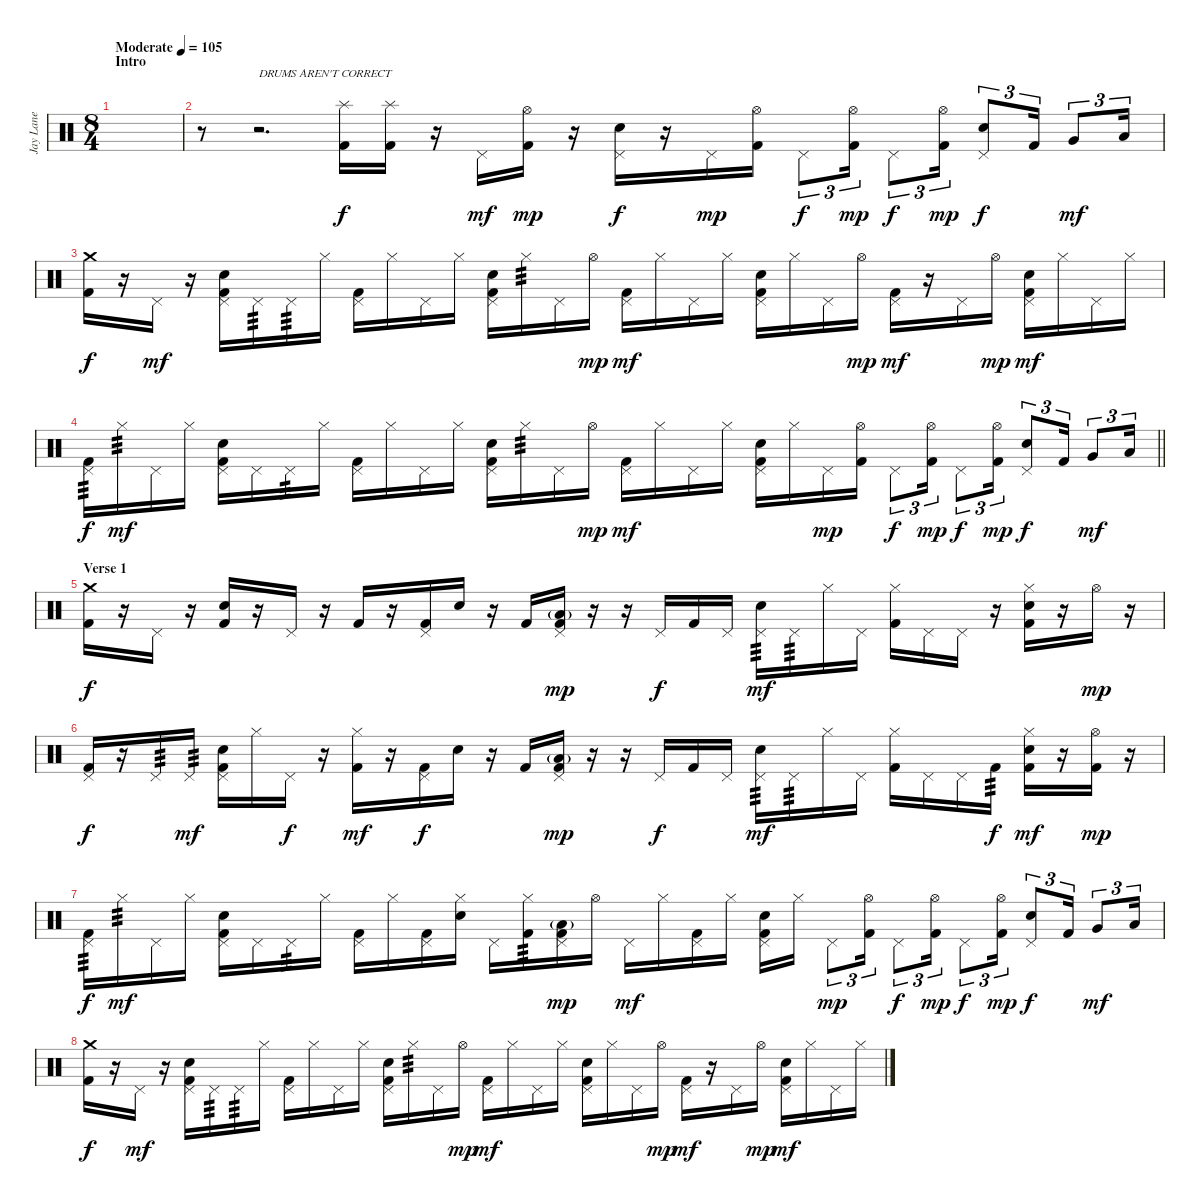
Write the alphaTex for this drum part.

\track ("Jay Lane" "Jay Lane") {instrument percussion}
\staff {score}
\articulation defaults
\ts (8 4)
\section ("" "Intro")
\tempo (105 "Moderate")
\clef neutral
\ks c
|
r.8 r.2{d txt "DRUMS AREN'T CORRECT"} ("Splash (hit)" "Kick (hit) 2").16 ("Splash (hit)" "Kick (hit) 2").16{dy f} r.16 "Pedal Hi-Hat (hit)".16{dy mf} ("Hi-Hat (open)" "Kick (hit) 2").16{dy mp} r.16 ("Pedal Hi-Hat (hit)" "Electric Snare (hit)").16{dy f} r.16 "Pedal Hi-Hat (hit)".16{dy mp} ("Hi-Hat (open)" "Kick (hit) 2").16 "Pedal Hi-Hat (hit)".8{tu (3 2) dy f} ("Hi-Hat (open)" "Kick (hit) 2").16{tu (3 2) dy mp} "Pedal Hi-Hat (hit)".8{tu (3 2) dy f} ("Hi-Hat (open)" "Kick (hit) 2").16{tu (3 2) dy mp} ("Pedal Hi-Hat (hit)" "Electric Snare (hit)").8{tu (3 2) dy f} "Kick (hit) 2".16{tu (3 2)} "Very Low Tom (hit)".8{tu (3 2) dy mf} "Low Floor Tom (hit)".16{tu (3 2)} |
("Crash medium (hit)" "Kick (hit) 2").16{dy f} r.16 "Pedal Hi-Hat (hit)".16{dy mf} r.16 ("Pedal Hi-Hat (hit)" "Electric Snare (hit)" "Kick (hit) 2").16 "Pedal Hi-Hat (hit)".16{tp 3} "Pedal Hi-Hat (hit)".16{tp 3} "Hi-Hat (closed)".16 ("Pedal Hi-Hat (hit)" "Kick (hit) 2").16 "Hi-Hat (closed)".16 "Pedal Hi-Hat (hit)".16 "Hi-Hat (closed)".16 ("Pedal Hi-Hat (hit)" "Electric Snare (hit)" "Kick (hit) 2").16 "Hi-Hat (closed)".16{tp 3} "Pedal Hi-Hat (hit)".16 "Hi-Hat (open)".16{dy mp} ("Pedal Hi-Hat (hit)" "Kick (hit) 2").16{dy mf} "Hi-Hat (closed)".16 "Pedal Hi-Hat (hit)".16 "Hi-Hat (closed)".16 ("Pedal Hi-Hat (hit)" "Electric Snare (hit)" "Kick (hit) 2").16 "Hi-Hat (closed)".16 "Pedal Hi-Hat (hit)".16 "Hi-Hat (open)".16{dy mp} ("Pedal Hi-Hat (hit)" "Kick (hit) 2").16{dy mf} r.16 "Pedal Hi-Hat (hit)".16 "Hi-Hat (open)".16{dy mp} ("Pedal Hi-Hat (hit)" "Electric Snare (hit)" "Kick (hit) 2").16{dy mf} "Hi-Hat (closed)".16 "Pedal Hi-Hat (hit)".16 "Hi-Hat (closed)".16 |
\barLineRight lightlight
("Pedal Hi-Hat (hit)" "Kick (hit) 2").16{tp 3 dy f} "Hi-Hat (closed)".16{tp 3 dy mf} "Pedal Hi-Hat (hit)".16 "Hi-Hat (closed)".16 ("Pedal Hi-Hat (hit)" "Electric Snare (hit)" "Kick (hit) 2").16 "Pedal Hi-Hat (hit)".16 "Pedal Hi-Hat (hit)".16{tp 3} "Hi-Hat (closed)".16 ("Pedal Hi-Hat (hit)" "Kick (hit) 2").16 "Hi-Hat (closed)".16 "Pedal Hi-Hat (hit)".16 "Hi-Hat (closed)".16 ("Pedal Hi-Hat (hit)" "Electric Snare (hit)" "Kick (hit) 2").16 "Hi-Hat (closed)".16{tp 3} "Pedal Hi-Hat (hit)".16 "Hi-Hat (open)".16{dy mp} ("Pedal Hi-Hat (hit)" "Kick (hit) 2").16{dy mf} "Hi-Hat (closed)".16 "Pedal Hi-Hat (hit)".16 "Hi-Hat (closed)".16 ("Pedal Hi-Hat (hit)" "Electric Snare (hit)" "Kick (hit) 2").16 "Hi-Hat (closed)".16 "Pedal Hi-Hat (hit)".16{dy mp} ("Hi-Hat (open)" "Kick (hit) 2").16 "Pedal Hi-Hat (hit)".8{tu (3 2) dy f} ("Hi-Hat (open)" "Kick (hit) 2").16{tu (3 2) dy mp} "Pedal Hi-Hat (hit)".8{tu (3 2) dy f} ("Hi-Hat (open)" "Kick (hit) 2").16{tu (3 2) dy mp} ("Pedal Hi-Hat (hit)" "Electric Snare (hit)").8{tu (3 2) dy f} "Kick (hit) 2".16{tu (3 2)} "Very Low Tom (hit)".8{tu (3 2) dy mf} "Low Floor Tom (hit)".16{tu (3 2)} |
\section ("" "Verse 1")
("Crash medium (hit)" "Kick (hit) 2").16{dy f} r.16 "Pedal Hi-Hat (hit)".16 r.16 ("Electric Snare (hit)" "Kick (hit) 2").16 r.16 "Pedal Hi-Hat (hit)".16 r.16 "Kick (hit) 2".16 r.16 ("Pedal Hi-Hat (hit)" "Kick (hit) 2").16 "Electric Snare (hit)".16 r.16 "Kick (hit) 2".16 ("Pedal Hi-Hat (hit)" "Low Floor Tom (hit)"{g} "Kick (hit) 2").16{dy mp} r.16 r.16 "Pedal Hi-Hat (hit)".16{dy f} "Kick (hit) 2".16 "Pedal Hi-Hat (hit)".16 ("Pedal Hi-Hat (hit)" "Electric Snare (hit)").16{tp 3 dy mf} "Pedal Hi-Hat (hit)".16{tp 3} "Hi-Hat (closed)".16 "Pedal Hi-Hat (hit)".16 ("Hi-Hat (closed)" "Kick (hit) 2").16 "Pedal Hi-Hat (hit)".16 "Pedal Hi-Hat (hit)".16 r.16 ("Hi-Hat (closed)" "Electric Snare (hit)" "Kick (hit) 2").16 r.16 "Hi-Hat (open)".16{dy mp} r.16 |
("Pedal Hi-Hat (hit)" "Kick (hit) 2").16{dy f} r.16 "Pedal Hi-Hat (hit)".16{tp 3} "Pedal Hi-Hat (hit)".16{tp 3 dy mf} ("Pedal Hi-Hat (hit)" "Electric Snare (hit)" "Kick (hit) 2").16 "Hi-Hat (closed)".16 "Pedal Hi-Hat (hit)".16{dy f} r.16 ("Hi-Hat (closed)" "Kick (hit) 2").16{dy mf} r.16 ("Pedal Hi-Hat (hit)" "Kick (hit) 2").16{dy f} "Electric Snare (hit)".16 r.16 "Kick (hit) 2".16 ("Pedal Hi-Hat (hit)" "Low Floor Tom (hit)"{g} "Kick (hit) 2").16{dy mp} r.16 r.16 "Pedal Hi-Hat (hit)".16{dy f} "Kick (hit) 2".16 "Pedal Hi-Hat (hit)".16 ("Pedal Hi-Hat (hit)" "Electric Snare (hit)").16{tp 3 dy mf} "Pedal Hi-Hat (hit)".16{tp 3} "Hi-Hat (closed)".16 "Pedal Hi-Hat (hit)".16 ("Hi-Hat (closed)" "Kick (hit) 2").16 "Pedal Hi-Hat (hit)".16 "Pedal Hi-Hat (hit)".16 "Kick (hit) 2".16{tp 3 dy f} ("Hi-Hat (closed)" "Electric Snare (hit)" "Kick (hit) 2").16{dy mf} r.16 ("Hi-Hat (open)" "Kick (hit) 2").16{dy mp} r.16 |
("Pedal Hi-Hat (hit)" "Kick (hit) 2").16{tp 3 dy f} "Hi-Hat (closed)".16{tp 3 dy mf} "Pedal Hi-Hat (hit)".16 "Hi-Hat (closed)".16 ("Pedal Hi-Hat (hit)" "Electric Snare (hit)" "Kick (hit) 2").16 "Pedal Hi-Hat (hit)".16 "Pedal Hi-Hat (hit)".16{tp 3} "Hi-Hat (closed)".16 ("Pedal Hi-Hat (hit)" "Kick (hit) 2").16 "Hi-Hat (closed)".16 ("Pedal Hi-Hat (hit)" "Kick (hit) 2").16 ("Hi-Hat (closed)" "Electric Snare (hit)").16 "Pedal Hi-Hat (hit)".16 ("Hi-Hat (closed)" "Kick (hit) 2").16{tp 3} ("Pedal Hi-Hat (hit)" "Low Floor Tom (hit)"{g} "Kick (hit) 2").16{dy mp} "Hi-Hat (open)".16 "Pedal Hi-Hat (hit)".16{dy mf} "Hi-Hat (closed)".16 ("Pedal Hi-Hat (hit)" "Kick (hit) 2").16 "Hi-Hat (closed)".16 ("Pedal Hi-Hat (hit)" "Electric Snare (hit)" "Kick (hit) 2").16 "Hi-Hat (closed)".16 "Pedal Hi-Hat (hit)".8{tu (3 2) dy mp} ("Hi-Hat (open)" "Kick (hit) 2").16{tu (3 2)} "Pedal Hi-Hat (hit)".8{tu (3 2) dy f} ("Hi-Hat (open)" "Kick (hit) 2").16{tu (3 2) dy mp} "Pedal Hi-Hat (hit)".8{tu (3 2) dy f} ("Hi-Hat (open)" "Kick (hit) 2").16{tu (3 2) dy mp} ("Pedal Hi-Hat (hit)" "Electric Snare (hit)").8{tu (3 2) dy f} "Kick (hit) 2".16{tu (3 2)} "Very Low Tom (hit)".8{tu (3 2) dy mf} "Low Floor Tom (hit)".16{tu (3 2)} |
("Crash medium (hit)" "Kick (hit) 2").16{dy f} r.16 "Pedal Hi-Hat (hit)".16{dy mf} r.16 ("Pedal Hi-Hat (hit)" "Electric Snare (hit)" "Kick (hit) 2").16 "Pedal Hi-Hat (hit)".16{tp 3} "Pedal Hi-Hat (hit)".16{tp 3} "Hi-Hat (closed)".16 ("Pedal Hi-Hat (hit)" "Kick (hit) 2").16 "Hi-Hat (closed)".16 "Pedal Hi-Hat (hit)".16 "Hi-Hat (closed)".16 ("Pedal Hi-Hat (hit)" "Electric Snare (hit)" "Kick (hit) 2").16 "Hi-Hat (closed)".16{tp 3} "Pedal Hi-Hat (hit)".16 "Hi-Hat (open)".16{dy mp} ("Pedal Hi-Hat (hit)" "Kick (hit) 2").16{dy mf} "Hi-Hat (closed)".16 "Pedal Hi-Hat (hit)".16 "Hi-Hat (closed)".16 ("Pedal Hi-Hat (hit)" "Electric Snare (hit)" "Kick (hit) 2").16 "Hi-Hat (closed)".16 "Pedal Hi-Hat (hit)".16 "Hi-Hat (open)".16{dy mp} ("Pedal Hi-Hat (hit)" "Kick (hit) 2").16{dy mf} r.16 "Pedal Hi-Hat (hit)".16 "Hi-Hat (open)".16{dy mp} ("Pedal Hi-Hat (hit)" "Electric Snare (hit)" "Kick (hit) 2").16{dy mf} "Hi-Hat (closed)".16 "Pedal Hi-Hat (hit)".16 "Hi-Hat (closed)".16
